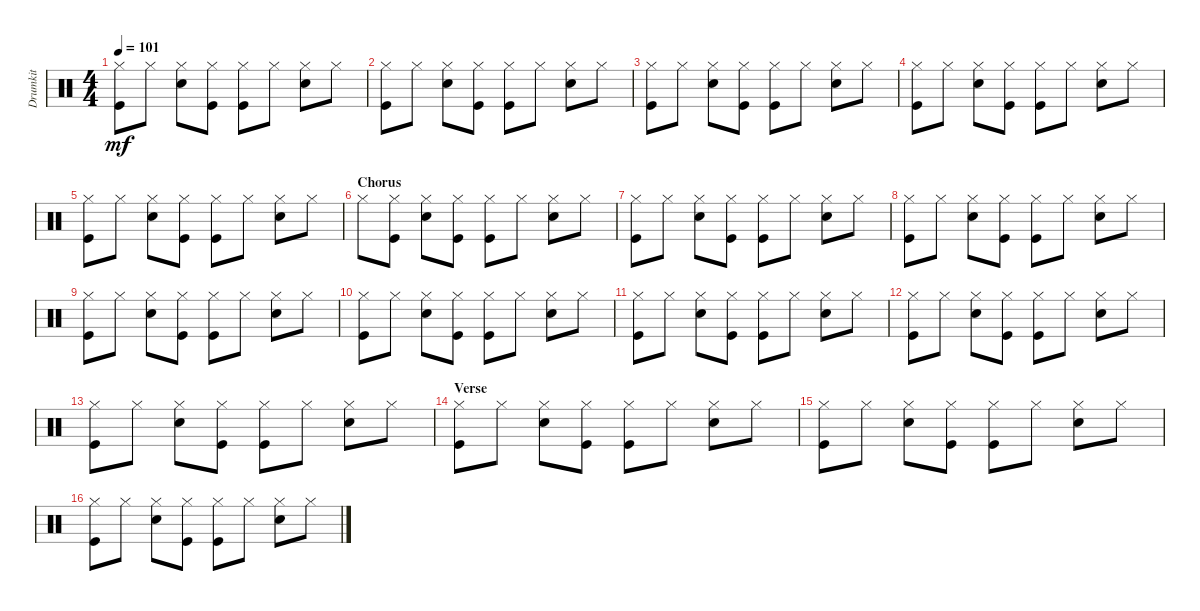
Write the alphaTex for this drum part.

\track ("Drumkit" "Drumkit") {instrument percussion}
\staff {score}
\articulation defaults
\ts (4 4)
\tempo 101
\clef neutral
\ks c
("Kick (hit)" "Hi-Hat (closed)").8{dy mf} "Hi-Hat (closed)".8 ("Hi-Hat (closed)" "Snare (hit) 2").8 ("Hi-Hat (closed)" "Kick (hit)").8 ("Hi-Hat (closed)" "Kick (hit)").8 "Hi-Hat (closed)".8 ("Hi-Hat (closed)" "Snare (hit) 2").8 "Hi-Hat (closed)".8 |
("Kick (hit)" "Hi-Hat (closed)").8 "Hi-Hat (closed)".8 ("Hi-Hat (closed)" "Snare (hit) 2").8 ("Hi-Hat (closed)" "Kick (hit)").8 ("Hi-Hat (closed)" "Kick (hit)").8 "Hi-Hat (closed)".8 ("Hi-Hat (closed)" "Snare (hit) 2").8 "Hi-Hat (closed)".8 |
("Kick (hit)" "Hi-Hat (closed)").8 "Hi-Hat (closed)".8 ("Hi-Hat (closed)" "Snare (hit) 2").8 ("Hi-Hat (closed)" "Kick (hit)").8 ("Hi-Hat (closed)" "Kick (hit)").8 "Hi-Hat (closed)".8 ("Hi-Hat (closed)" "Snare (hit) 2").8 "Hi-Hat (closed)".8 |
("Kick (hit)" "Hi-Hat (closed)").8 "Hi-Hat (closed)".8 ("Hi-Hat (closed)" "Snare (hit) 2").8 ("Hi-Hat (closed)" "Kick (hit)").8 ("Hi-Hat (closed)" "Kick (hit)").8 "Hi-Hat (closed)".8 ("Hi-Hat (closed)" "Snare (hit) 2").8 "Hi-Hat (closed)".8 |
("Kick (hit)" "Hi-Hat (closed)").8 "Hi-Hat (closed)".8 ("Hi-Hat (closed)" "Snare (hit) 2").8 ("Hi-Hat (closed)" "Kick (hit)").8 ("Hi-Hat (closed)" "Kick (hit)").8 "Hi-Hat (closed)".8 ("Hi-Hat (closed)" "Snare (hit) 2").8 "Hi-Hat (closed)".8 |
\section ("" "Chorus")
"Hi-Hat (closed)".8 ("Hi-Hat (closed)" "Kick (hit)").8 ("Hi-Hat (closed)" "Snare (hit) 2").8 ("Hi-Hat (closed)" "Kick (hit)").8 ("Hi-Hat (closed)" "Kick (hit)").8 "Hi-Hat (closed)".8 ("Hi-Hat (closed)" "Snare (hit) 2").8 "Hi-Hat (closed)".8 |
("Kick (hit)" "Hi-Hat (closed)").8 "Hi-Hat (closed)".8 ("Hi-Hat (closed)" "Snare (hit) 2").8 ("Hi-Hat (closed)" "Kick (hit)").8 ("Hi-Hat (closed)" "Kick (hit)").8 "Hi-Hat (closed)".8 ("Hi-Hat (closed)" "Snare (hit) 2").8 "Hi-Hat (closed)".8 |
("Kick (hit)" "Hi-Hat (closed)").8 "Hi-Hat (closed)".8 ("Hi-Hat (closed)" "Snare (hit) 2").8 ("Hi-Hat (closed)" "Kick (hit)").8 ("Hi-Hat (closed)" "Kick (hit)").8 "Hi-Hat (closed)".8 ("Hi-Hat (closed)" "Snare (hit) 2").8 "Hi-Hat (closed)".8 |
("Kick (hit)" "Hi-Hat (closed)").8 "Hi-Hat (closed)".8 ("Hi-Hat (closed)" "Snare (hit) 2").8 ("Hi-Hat (closed)" "Kick (hit)").8 ("Hi-Hat (closed)" "Kick (hit)").8 "Hi-Hat (closed)".8 ("Hi-Hat (closed)" "Snare (hit) 2").8 "Hi-Hat (closed)".8 |
("Hi-Hat (closed)" "Kick (hit)").8 "Hi-Hat (closed)".8 ("Hi-Hat (closed)" "Snare (hit) 2").8 ("Hi-Hat (closed)" "Kick (hit)").8 ("Hi-Hat (closed)" "Kick (hit)").8 "Hi-Hat (closed)".8 ("Hi-Hat (closed)" "Snare (hit) 2").8 "Hi-Hat (closed)".8 |
("Kick (hit)" "Hi-Hat (closed)").8 "Hi-Hat (closed)".8 ("Hi-Hat (closed)" "Snare (hit) 2").8 ("Hi-Hat (closed)" "Kick (hit)").8 ("Hi-Hat (closed)" "Kick (hit)").8 "Hi-Hat (closed)".8 ("Hi-Hat (closed)" "Snare (hit) 2").8 "Hi-Hat (closed)".8 |
("Kick (hit)" "Hi-Hat (closed)").8 "Hi-Hat (closed)".8 ("Hi-Hat (closed)" "Snare (hit) 2").8 ("Hi-Hat (closed)" "Kick (hit)").8 ("Hi-Hat (closed)" "Kick (hit)").8 "Hi-Hat (closed)".8 ("Hi-Hat (closed)" "Snare (hit) 2").8 "Hi-Hat (closed)".8 |
("Kick (hit)" "Hi-Hat (closed)").8 "Hi-Hat (closed)".8 ("Hi-Hat (closed)" "Snare (hit) 2").8 ("Hi-Hat (closed)" "Kick (hit)").8 ("Hi-Hat (closed)" "Kick (hit)").8 "Hi-Hat (closed)".8 ("Hi-Hat (closed)" "Snare (hit) 2").8 "Hi-Hat (closed)".8 |
\section ("" "Verse")
("Kick (hit)" "Hi-Hat (closed)").8 "Hi-Hat (closed)".8 ("Hi-Hat (closed)" "Snare (hit) 2").8 ("Hi-Hat (closed)" "Kick (hit)").8 ("Hi-Hat (closed)" "Kick (hit)").8 "Hi-Hat (closed)".8 ("Hi-Hat (closed)" "Snare (hit) 2").8 "Hi-Hat (closed)".8 |
("Kick (hit)" "Hi-Hat (closed)").8 "Hi-Hat (closed)".8 ("Hi-Hat (closed)" "Snare (hit) 2").8 ("Hi-Hat (closed)" "Kick (hit)").8 ("Hi-Hat (closed)" "Kick (hit)").8 "Hi-Hat (closed)".8 ("Hi-Hat (closed)" "Snare (hit) 2").8 "Hi-Hat (closed)".8 |
("Kick (hit)" "Hi-Hat (closed)").8 "Hi-Hat (closed)".8 ("Hi-Hat (closed)" "Snare (hit) 2").8 ("Hi-Hat (closed)" "Kick (hit)").8 ("Hi-Hat (closed)" "Kick (hit)").8 "Hi-Hat (closed)".8 ("Hi-Hat (closed)" "Snare (hit) 2").8 "Hi-Hat (closed)".8
